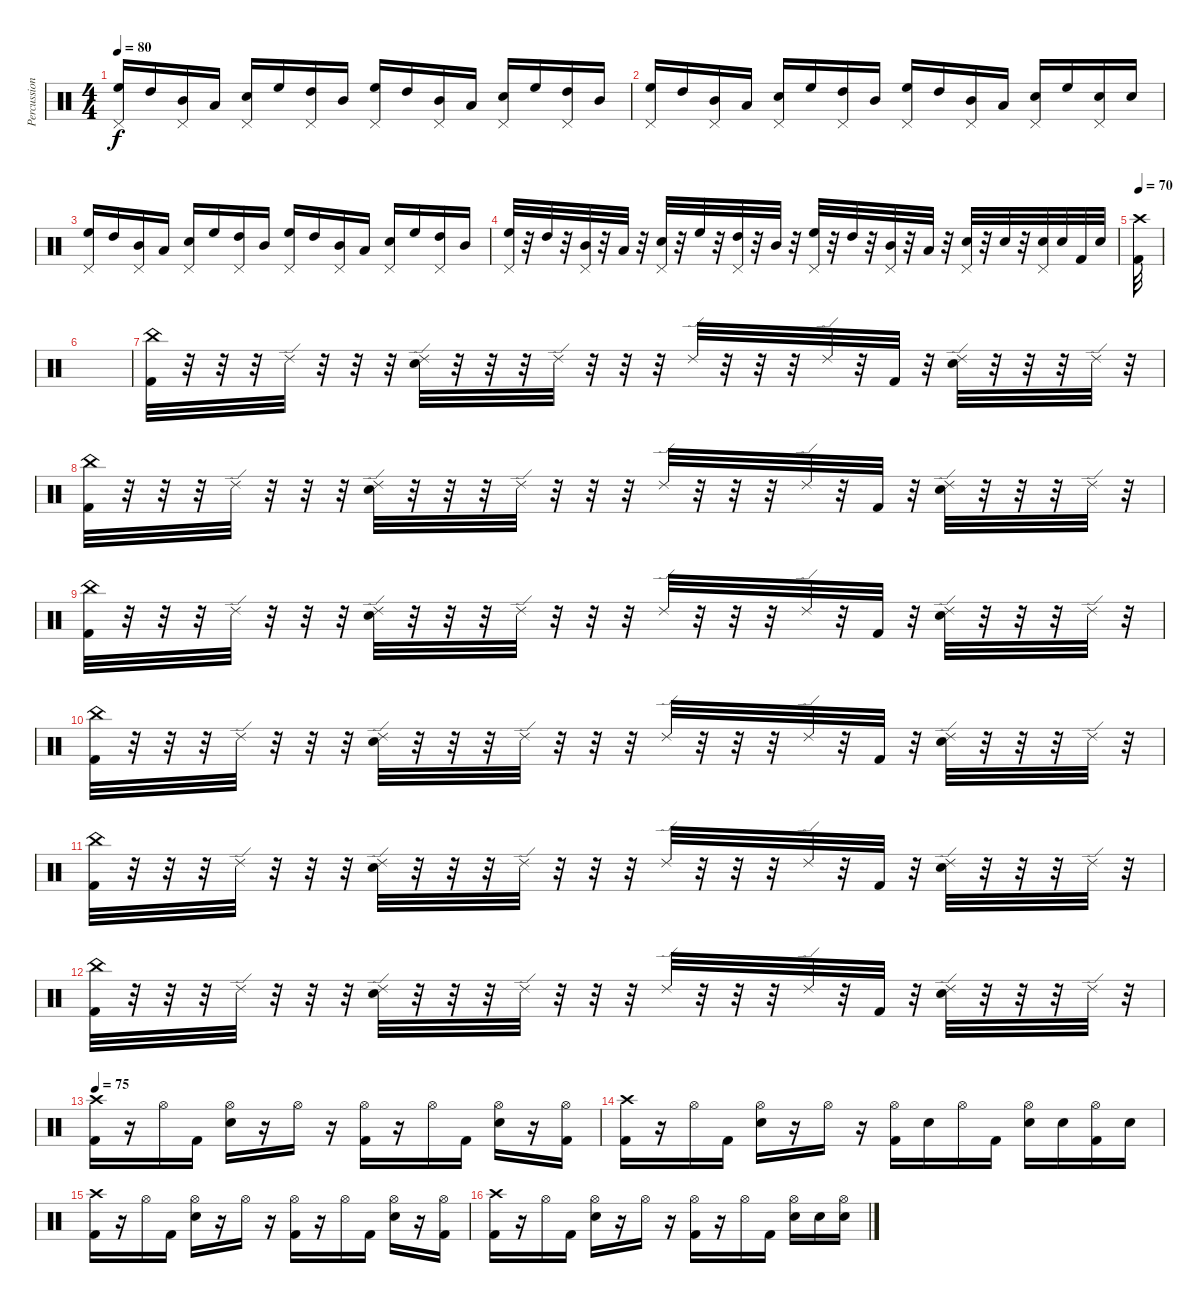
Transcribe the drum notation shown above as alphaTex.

\track ("Percussion" "Percussion") {instrument percussion}
\staff {score}
\articulation defaults
\ts (4 4)
\tempo 80
\clef neutral
\ks c
("High Floor Tom (hit)" "Pedal Hi-Hat (hit)").16{dy f} "High Tom (hit)".16 ("Mid Tom (hit)" "Pedal Hi-Hat (hit)").16 "Low Tom (hit)".16 ("Snare (hit) 2" "Pedal Hi-Hat (hit)").16 "High Floor Tom (hit)".16 ("High Tom (hit)" "Pedal Hi-Hat (hit)").16 "Mid Tom (hit)".16 ("High Floor Tom (hit)" "Pedal Hi-Hat (hit)").16 "High Tom (hit)".16 ("Mid Tom (hit)" "Pedal Hi-Hat (hit)").16 "Low Tom (hit)".16 ("Snare (hit) 2" "Pedal Hi-Hat (hit)").16 "High Floor Tom (hit)".16 ("High Tom (hit)" "Pedal Hi-Hat (hit)").16 "Mid Tom (hit)".16 |
("High Floor Tom (hit)" "Pedal Hi-Hat (hit)").16 "High Tom (hit)".16 ("Mid Tom (hit)" "Pedal Hi-Hat (hit)").16 "Low Tom (hit)".16 ("Snare (hit) 2" "Pedal Hi-Hat (hit)").16 "High Floor Tom (hit)".16 ("High Tom (hit)" "Pedal Hi-Hat (hit)").16 "Mid Tom (hit)".16 ("High Floor Tom (hit)" "Pedal Hi-Hat (hit)").16 "High Tom (hit)".16 ("Mid Tom (hit)" "Pedal Hi-Hat (hit)").16 "Low Tom (hit)".16 ("Snare (hit) 2" "Pedal Hi-Hat (hit)").16 "High Floor Tom (hit)".16 ("Snare (hit) 2" "Pedal Hi-Hat (hit)").16 "Snare (hit) 2".16 |
("High Floor Tom (hit)" "Pedal Hi-Hat (hit)").16 "High Tom (hit)".16 ("Mid Tom (hit)" "Pedal Hi-Hat (hit)").16 "Low Tom (hit)".16 ("Snare (hit) 2" "Pedal Hi-Hat (hit)").16 "High Floor Tom (hit)".16 ("High Tom (hit)" "Pedal Hi-Hat (hit)").16 "Mid Tom (hit)".16 ("High Floor Tom (hit)" "Pedal Hi-Hat (hit)").16 "High Tom (hit)".16 ("Mid Tom (hit)" "Pedal Hi-Hat (hit)").16 "Low Tom (hit)".16 ("Snare (hit) 2" "Pedal Hi-Hat (hit)").16 "High Floor Tom (hit)".16 ("High Tom (hit)" "Pedal Hi-Hat (hit)").16 "Mid Tom (hit)".16 |
("High Floor Tom (hit)" "Pedal Hi-Hat (hit)").32 r.32 "High Tom (hit)".32 r.32 ("Mid Tom (hit)" "Pedal Hi-Hat (hit)").32 r.32 "Low Tom (hit)".32 r.32 ("Snare (hit) 2" "Pedal Hi-Hat (hit)").32 r.32 "High Floor Tom (hit)".32 r.32 ("High Tom (hit)" "Pedal Hi-Hat (hit)").32 r.32 "Mid Tom (hit)".32 r.32 ("High Floor Tom (hit)" "Pedal Hi-Hat (hit)").32 r.32 "High Tom (hit)".32 r.32 ("Mid Tom (hit)" "Pedal Hi-Hat (hit)").32 r.32 "Low Tom (hit)".32 r.32 ("Snare (hit) 2" "Pedal Hi-Hat (hit)").32 r.32 "Snare (hit) 2".32 r.32 ("Snare (hit) 2" "Pedal Hi-Hat (hit)").32 "Snare (hit) 2".32 "Kick (hit) 2".32 "Snare (hit) 2".32 |
\tempo 70
("Crash high (hit)" "Kick (hit) 2").32 |
|
("China (hit)" "Kick (hit) 2").32 r.32 r.32 r.32 "Ride (edge) 2".32 r.32 r.32 r.32 ("Ride (edge) 2" "Snare (hit) 2").32 r.32 r.32 r.32 "Ride (edge) 2".32 r.32 r.32 r.32 "Ride (edge) 2".32 r.32 r.32 r.32 "Ride (edge) 2".32 r.32 "Kick (hit) 2".32 r.32 ("Ride (edge) 2" "Snare (hit) 2").32 r.32 r.32 r.32 "Ride (edge) 2".32 r.32 |
("China (hit)" "Kick (hit) 2").32 r.32 r.32 r.32 "Ride (edge) 2".32 r.32 r.32 r.32 ("Ride (edge) 2" "Snare (hit) 2").32 r.32 r.32 r.32 "Ride (edge) 2".32 r.32 r.32 r.32 "Ride (edge) 2".32 r.32 r.32 r.32 "Ride (edge) 2".32 r.32 "Kick (hit) 2".32 r.32 ("Ride (edge) 2" "Snare (hit) 2").32 r.32 r.32 r.32 "Ride (edge) 2".32 r.32 |
("China (hit)" "Kick (hit) 2").32 r.32 r.32 r.32 "Ride (edge) 2".32 r.32 r.32 r.32 ("Ride (edge) 2" "Snare (hit) 2").32 r.32 r.32 r.32 "Ride (edge) 2".32 r.32 r.32 r.32 "Ride (edge) 2".32 r.32 r.32 r.32 "Ride (edge) 2".32 r.32 "Kick (hit) 2".32 r.32 ("Ride (edge) 2" "Snare (hit) 2").32 r.32 r.32 r.32 "Ride (edge) 2".32 r.32 |
("China (hit)" "Kick (hit) 2").32 r.32 r.32 r.32 "Ride (edge) 2".32 r.32 r.32 r.32 ("Ride (edge) 2" "Snare (hit) 2").32 r.32 r.32 r.32 "Ride (edge) 2".32 r.32 r.32 r.32 "Ride (edge) 2".32 r.32 r.32 r.32 "Ride (edge) 2".32 r.32 "Kick (hit) 2".32 r.32 ("Ride (edge) 2" "Snare (hit) 2").32 r.32 r.32 r.32 "Ride (edge) 2".32 r.32 |
("China (hit)" "Kick (hit) 2").32 r.32 r.32 r.32 "Ride (edge) 2".32 r.32 r.32 r.32 ("Ride (edge) 2" "Snare (hit) 2").32 r.32 r.32 r.32 "Ride (edge) 2".32 r.32 r.32 r.32 "Ride (edge) 2".32 r.32 r.32 r.32 "Ride (edge) 2".32 r.32 "Kick (hit) 2".32 r.32 ("Ride (edge) 2" "Snare (hit) 2").32 r.32 r.32 r.32 "Ride (edge) 2".32 r.32 |
("China (hit)" "Kick (hit) 2").32 r.32 r.32 r.32 "Ride (edge) 2".32 r.32 r.32 r.32 ("Ride (edge) 2" "Snare (hit) 2").32 r.32 r.32 r.32 "Ride (edge) 2".32 r.32 r.32 r.32 "Ride (edge) 2".32 r.32 r.32 r.32 "Ride (edge) 2".32 r.32 "Kick (hit) 2".32 r.32 ("Ride (edge) 2" "Snare (hit) 2").32 r.32 r.32 r.32 "Ride (edge) 2".32 r.32 |
\tempo 75
("Crash high (hit)" "Kick (hit) 2").16 r.16 "Hi-Hat (open)".16 "Kick (hit) 2".16 ("Hi-Hat (open)" "Snare (hit) 2").16 r.16 "Hi-Hat (open)".16 r.16 ("Hi-Hat (open)" "Kick (hit) 2").16 r.16 "Hi-Hat (open)".16 "Kick (hit) 2".16 ("Hi-Hat (open)" "Snare (hit) 2").16 r.16 ("Hi-Hat (open)" "Kick (hit) 2").16 |
("Crash high (hit)" "Kick (hit) 2").16 r.16 "Hi-Hat (open)".16 "Kick (hit) 2".16 ("Hi-Hat (open)" "Snare (hit) 2").16 r.16 "Hi-Hat (open)".16 r.16 ("Hi-Hat (open)" "Kick (hit) 2").16 "Snare (hit) 2".16 "Hi-Hat (open)".16 "Kick (hit) 2".16 ("Hi-Hat (open)" "Snare (hit) 2").16 "Snare (hit) 2".16 ("Hi-Hat (open)" "Kick (hit) 2").16 "Snare (hit) 2".16 |
("Crash high (hit)" "Kick (hit) 2").16 r.16 "Hi-Hat (open)".16 "Kick (hit) 2".16 ("Hi-Hat (open)" "Snare (hit) 2").16 r.16 "Hi-Hat (open)".16 r.16 ("Hi-Hat (open)" "Kick (hit) 2").16 r.16 "Hi-Hat (open)".16 "Kick (hit) 2".16 ("Hi-Hat (open)" "Snare (hit) 2").16 r.16 ("Hi-Hat (open)" "Kick (hit) 2").16 |
("Crash high (hit)" "Kick (hit) 2").16 r.16 "Hi-Hat (open)".16 "Kick (hit) 2".16 ("Hi-Hat (open)" "Snare (hit) 2").16 r.16 "Hi-Hat (open)".16 r.16 ("Hi-Hat (open)" "Kick (hit) 2").16 r.16 "Hi-Hat (open)".16 "Kick (hit) 2".16 ("Hi-Hat (open)" "Snare (hit) 2").16 "Snare (hit) 2".16 ("Hi-Hat (open)" "Snare (hit) 2").16
